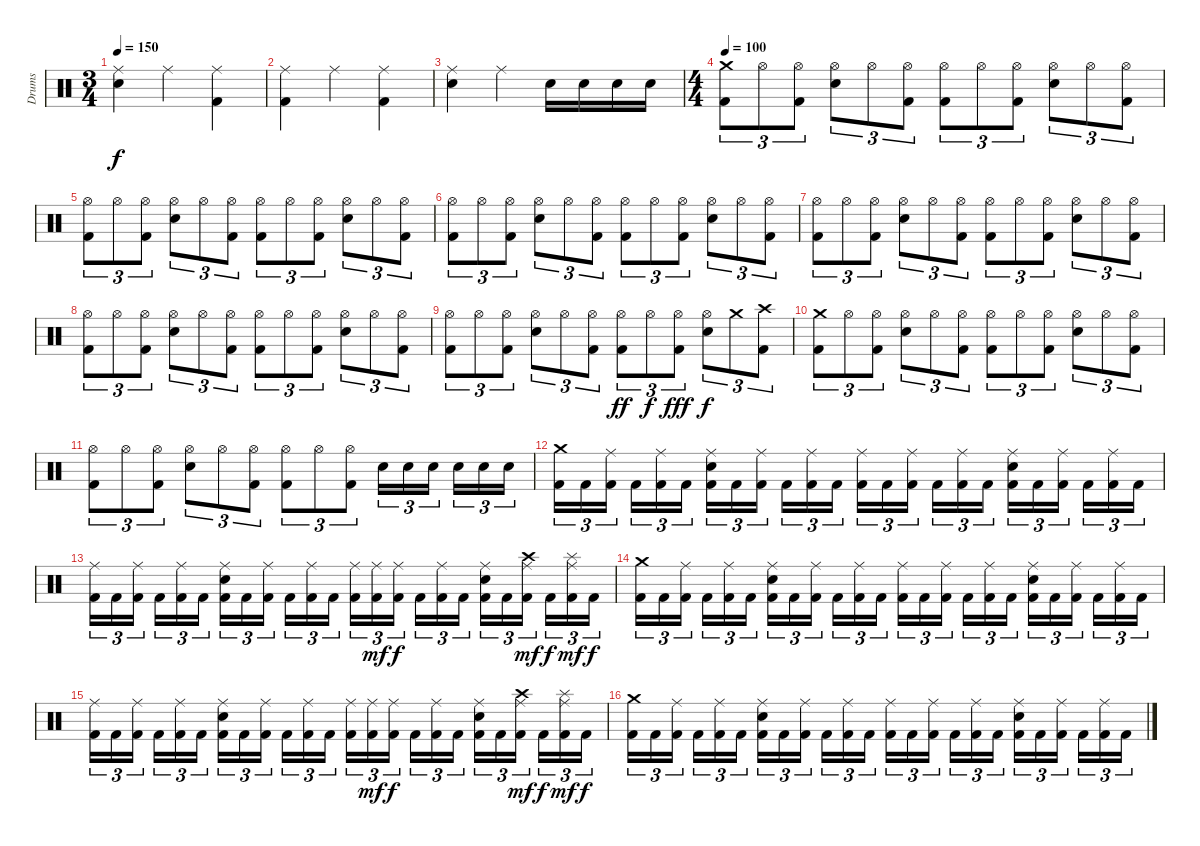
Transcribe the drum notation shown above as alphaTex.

\track ("Drums" "Drums") {instrument percussion}
\staff {score}
\articulation defaults
\ts (3 4)
\tempo 150
\clef neutral
\ks c
("Ride (middle)" "Electric Snare (hit)").4{dy f} "Ride (middle)".4 ("Ride (middle)" "Kick (hit) 2").4 |
("Ride (middle)" "Kick (hit) 2").4 "Ride (middle)".4 ("Ride (middle)" "Kick (hit) 2").4 |
("Ride (middle)" "Electric Snare (hit)").4 "Ride (middle)".4 "Electric Snare (hit)".16 "Electric Snare (hit)".16 "Electric Snare (hit)".16 "Electric Snare (hit)".16 |
\ts (4 4)
\tempo 100
("Crash medium (hit)" "Kick (hit) 2").8{tu (3 2)} "Hi-Hat (open)".8{tu (3 2)} ("Hi-Hat (open)" "Kick (hit) 2").8{tu (3 2)} ("Hi-Hat (open)" "Electric Snare (hit)").8{tu (3 2)} "Hi-Hat (open)".8{tu (3 2)} ("Hi-Hat (open)" "Kick (hit) 2").8{tu (3 2)} ("Hi-Hat (open)" "Kick (hit) 2").8{tu (3 2)} "Hi-Hat (open)".8{tu (3 2)} ("Hi-Hat (open)" "Kick (hit) 2").8{tu (3 2)} ("Hi-Hat (open)" "Electric Snare (hit)").8{tu (3 2)} "Hi-Hat (open)".8{tu (3 2)} ("Hi-Hat (open)" "Kick (hit) 2").8{tu (3 2)} |
("Hi-Hat (open)" "Kick (hit) 2").8{tu (3 2)} "Hi-Hat (open)".8{tu (3 2)} ("Hi-Hat (open)" "Kick (hit) 2").8{tu (3 2)} ("Hi-Hat (open)" "Electric Snare (hit)").8{tu (3 2)} "Hi-Hat (open)".8{tu (3 2)} ("Hi-Hat (open)" "Kick (hit) 2").8{tu (3 2)} ("Hi-Hat (open)" "Kick (hit) 2").8{tu (3 2)} "Hi-Hat (open)".8{tu (3 2)} ("Hi-Hat (open)" "Kick (hit) 2").8{tu (3 2)} ("Hi-Hat (open)" "Electric Snare (hit)").8{tu (3 2)} "Hi-Hat (open)".8{tu (3 2)} ("Hi-Hat (open)" "Kick (hit) 2").8{tu (3 2)} |
("Hi-Hat (open)" "Kick (hit) 2").8{tu (3 2)} "Hi-Hat (open)".8{tu (3 2)} ("Hi-Hat (open)" "Kick (hit) 2").8{tu (3 2)} ("Hi-Hat (open)" "Electric Snare (hit)").8{tu (3 2)} "Hi-Hat (open)".8{tu (3 2)} ("Hi-Hat (open)" "Kick (hit) 2").8{tu (3 2)} ("Hi-Hat (open)" "Kick (hit) 2").8{tu (3 2)} "Hi-Hat (open)".8{tu (3 2)} ("Hi-Hat (open)" "Kick (hit) 2").8{tu (3 2)} ("Hi-Hat (open)" "Electric Snare (hit)").8{tu (3 2)} "Hi-Hat (open)".8{tu (3 2)} ("Hi-Hat (open)" "Kick (hit) 2").8{tu (3 2)} |
("Hi-Hat (open)" "Kick (hit) 2").8{tu (3 2)} "Hi-Hat (open)".8{tu (3 2)} ("Hi-Hat (open)" "Kick (hit) 2").8{tu (3 2)} ("Hi-Hat (open)" "Electric Snare (hit)").8{tu (3 2)} "Hi-Hat (open)".8{tu (3 2)} ("Hi-Hat (open)" "Kick (hit) 2").8{tu (3 2)} ("Hi-Hat (open)" "Kick (hit) 2").8{tu (3 2)} "Hi-Hat (open)".8{tu (3 2)} ("Hi-Hat (open)" "Kick (hit) 2").8{tu (3 2)} ("Hi-Hat (open)" "Electric Snare (hit)").8{tu (3 2)} "Hi-Hat (open)".8{tu (3 2)} ("Hi-Hat (open)" "Kick (hit) 2").8{tu (3 2)} |
("Hi-Hat (open)" "Kick (hit) 2").8{tu (3 2)} "Hi-Hat (open)".8{tu (3 2)} ("Hi-Hat (open)" "Kick (hit) 2").8{tu (3 2)} ("Hi-Hat (open)" "Electric Snare (hit)").8{tu (3 2)} "Hi-Hat (open)".8{tu (3 2)} ("Hi-Hat (open)" "Kick (hit) 2").8{tu (3 2)} ("Hi-Hat (open)" "Kick (hit) 2").8{tu (3 2)} "Hi-Hat (open)".8{tu (3 2)} ("Hi-Hat (open)" "Kick (hit) 2").8{tu (3 2)} ("Hi-Hat (open)" "Electric Snare (hit)").8{tu (3 2)} "Hi-Hat (open)".8{tu (3 2)} ("Hi-Hat (open)" "Kick (hit) 2").8{tu (3 2)} |
("Hi-Hat (open)" "Kick (hit) 2").8{tu (3 2)} "Hi-Hat (open)".8{tu (3 2)} ("Hi-Hat (open)" "Kick (hit) 2").8{tu (3 2)} ("Hi-Hat (open)" "Electric Snare (hit)").8{tu (3 2)} "Hi-Hat (open)".8{tu (3 2)} ("Hi-Hat (open)" "Kick (hit) 2").8{tu (3 2)} ("Hi-Hat (open)" "Kick (hit) 2").8{tu (3 2) dy ff} "Hi-Hat (open)".8{tu (3 2) dy f} ("Hi-Hat (open)" "Kick (hit) 2").8{tu (3 2) dy fff} ("Hi-Hat (open)" "Electric Snare (hit)").8{tu (3 2) dy f} "Crash medium (hit)".8{tu (3 2)} ("Crash high (hit)" "Kick (hit) 2").8{tu (3 2)} |
("Crash medium (hit)" "Kick (hit) 2").8{tu (3 2)} "Hi-Hat (open)".8{tu (3 2)} ("Hi-Hat (open)" "Kick (hit) 2").8{tu (3 2)} ("Hi-Hat (open)" "Electric Snare (hit)").8{tu (3 2)} "Hi-Hat (open)".8{tu (3 2)} ("Hi-Hat (open)" "Kick (hit) 2").8{tu (3 2)} ("Hi-Hat (open)" "Kick (hit) 2").8{tu (3 2)} "Hi-Hat (open)".8{tu (3 2)} ("Hi-Hat (open)" "Kick (hit) 2").8{tu (3 2)} ("Hi-Hat (open)" "Electric Snare (hit)").8{tu (3 2)} "Hi-Hat (open)".8{tu (3 2)} ("Hi-Hat (open)" "Kick (hit) 2").8{tu (3 2)} |
("Hi-Hat (open)" "Kick (hit) 2").8{tu (3 2)} "Hi-Hat (open)".8{tu (3 2)} ("Hi-Hat (open)" "Kick (hit) 2").8{tu (3 2)} ("Hi-Hat (open)" "Electric Snare (hit)").8{tu (3 2)} "Hi-Hat (open)".8{tu (3 2)} ("Hi-Hat (open)" "Kick (hit) 2").8{tu (3 2)} ("Hi-Hat (open)" "Kick (hit) 2").8{tu (3 2)} "Hi-Hat (open)".8{tu (3 2)} ("Hi-Hat (open)" "Kick (hit) 2").8{tu (3 2)} "Electric Snare (hit)".16{tu (3 2)} "Electric Snare (hit)".16{tu (3 2)} "Electric Snare (hit)".16{tu (3 2) beam splitsecondary} "Electric Snare (hit)".16{tu (3 2)} "Electric Snare (hit)".16{tu (3 2)} "Electric Snare (hit)".16{tu (3 2)} |
("Crash medium (hit)" "Kick (hit) 2").16{tu (3 2)} "Kick (hit) 2".16{tu (3 2)} ("Ride (middle)" "Kick (hit) 2").16{tu (3 2) beam splitsecondary} "Kick (hit) 2".16{tu (3 2)} ("Ride (middle)" "Kick (hit) 2").16{tu (3 2)} "Kick (hit) 2".16{tu (3 2)} ("Ride (middle)" "Electric Snare (hit)" "Kick (hit) 2").16{tu (3 2)} "Kick (hit) 2".16{tu (3 2)} ("Ride (middle)" "Kick (hit) 2").16{tu (3 2) beam splitsecondary} "Kick (hit) 2".16{tu (3 2)} ("Ride (middle)" "Kick (hit) 2").16{tu (3 2)} "Kick (hit) 2".16{tu (3 2)} ("Ride (middle)" "Kick (hit) 2").16{tu (3 2)} "Kick (hit) 2".16{tu (3 2)} ("Ride (middle)" "Kick (hit) 2").16{tu (3 2) beam splitsecondary} "Kick (hit) 2".16{tu (3 2)} ("Ride (middle)" "Kick (hit) 2").16{tu (3 2)} "Kick (hit) 2".16{tu (3 2)} ("Ride (middle)" "Electric Snare (hit)" "Kick (hit) 2").16{tu (3 2)} "Kick (hit) 2".16{tu (3 2)} ("Ride (middle)" "Kick (hit) 2").16{tu (3 2) beam splitsecondary} "Kick (hit) 2".16{tu (3 2)} ("Ride (middle)" "Kick (hit) 2").16{tu (3 2)} "Kick (hit) 2".16{tu (3 2)} |
("Ride (middle)" "Kick (hit) 2").16{tu (3 2)} "Kick (hit) 2".16{tu (3 2)} ("Ride (middle)" "Kick (hit) 2").16{tu (3 2) beam splitsecondary} "Kick (hit) 2".16{tu (3 2)} ("Ride (middle)" "Kick (hit) 2").16{tu (3 2)} "Kick (hit) 2".16{tu (3 2)} ("Ride (middle)" "Electric Snare (hit)" "Kick (hit) 2").16{tu (3 2)} "Kick (hit) 2".16{tu (3 2)} ("Ride (middle)" "Kick (hit) 2").16{tu (3 2) beam splitsecondary} "Kick (hit) 2".16{tu (3 2)} ("Ride (middle)" "Kick (hit) 2").16{tu (3 2)} "Kick (hit) 2".16{tu (3 2)} ("Ride (middle)" "Kick (hit) 2").16{tu (3 2)} ("Ride (middle)" "Kick (hit) 2").16{tu (3 2) dy mf} ("Ride (middle)" "Kick (hit) 2").16{tu (3 2) dy f beam splitsecondary} "Kick (hit) 2".16{tu (3 2)} ("Ride (middle)" "Kick (hit) 2").16{tu (3 2)} "Kick (hit) 2".16{tu (3 2)} ("Ride (middle)" "Electric Snare (hit)" "Kick (hit) 2").16{tu (3 2)} "Kick (hit) 2".16{tu (3 2)} ("Crash high (hit)" "Ride (middle)" "Kick (hit) 2").16{tu (3 2) dy mf beam splitsecondary} "Kick (hit) 2".16{tu (3 2) dy f} ("Splash (hit)" "Ride (middle)" "Kick (hit) 2").16{tu (3 2) dy mf} "Kick (hit) 2".16{tu (3 2) dy f} |
("Crash medium (hit)" "Kick (hit) 2").16{tu (3 2)} "Kick (hit) 2".16{tu (3 2)} ("Ride (middle)" "Kick (hit) 2").16{tu (3 2) beam splitsecondary} "Kick (hit) 2".16{tu (3 2)} ("Ride (middle)" "Kick (hit) 2").16{tu (3 2)} "Kick (hit) 2".16{tu (3 2)} ("Ride (middle)" "Electric Snare (hit)" "Kick (hit) 2").16{tu (3 2)} "Kick (hit) 2".16{tu (3 2)} ("Ride (middle)" "Kick (hit) 2").16{tu (3 2) beam splitsecondary} "Kick (hit) 2".16{tu (3 2)} ("Ride (middle)" "Kick (hit) 2").16{tu (3 2)} "Kick (hit) 2".16{tu (3 2)} ("Ride (middle)" "Kick (hit) 2").16{tu (3 2)} "Kick (hit) 2".16{tu (3 2)} ("Ride (middle)" "Kick (hit) 2").16{tu (3 2) beam splitsecondary} "Kick (hit) 2".16{tu (3 2)} ("Ride (middle)" "Kick (hit) 2").16{tu (3 2)} "Kick (hit) 2".16{tu (3 2)} ("Ride (middle)" "Electric Snare (hit)" "Kick (hit) 2").16{tu (3 2)} "Kick (hit) 2".16{tu (3 2)} ("Ride (middle)" "Kick (hit) 2").16{tu (3 2) beam splitsecondary} "Kick (hit) 2".16{tu (3 2)} ("Ride (middle)" "Kick (hit) 2").16{tu (3 2)} "Kick (hit) 2".16{tu (3 2)} |
("Ride (middle)" "Kick (hit) 2").16{tu (3 2)} "Kick (hit) 2".16{tu (3 2)} ("Ride (middle)" "Kick (hit) 2").16{tu (3 2) beam splitsecondary} "Kick (hit) 2".16{tu (3 2)} ("Ride (middle)" "Kick (hit) 2").16{tu (3 2)} "Kick (hit) 2".16{tu (3 2)} ("Ride (middle)" "Electric Snare (hit)" "Kick (hit) 2").16{tu (3 2)} "Kick (hit) 2".16{tu (3 2)} ("Ride (middle)" "Kick (hit) 2").16{tu (3 2) beam splitsecondary} "Kick (hit) 2".16{tu (3 2)} ("Ride (middle)" "Kick (hit) 2").16{tu (3 2)} "Kick (hit) 2".16{tu (3 2)} ("Ride (middle)" "Kick (hit) 2").16{tu (3 2)} ("Ride (middle)" "Kick (hit) 2").16{tu (3 2) dy mf} ("Ride (middle)" "Kick (hit) 2").16{tu (3 2) dy f beam splitsecondary} "Kick (hit) 2".16{tu (3 2)} ("Ride (middle)" "Kick (hit) 2").16{tu (3 2)} "Kick (hit) 2".16{tu (3 2)} ("Ride (middle)" "Electric Snare (hit)" "Kick (hit) 2").16{tu (3 2)} "Kick (hit) 2".16{tu (3 2)} ("Crash high (hit)" "Ride (middle)" "Kick (hit) 2").16{tu (3 2) dy mf beam splitsecondary} "Kick (hit) 2".16{tu (3 2) dy f} ("Splash (hit)" "Ride (middle)" "Kick (hit) 2").16{tu (3 2) dy mf} "Kick (hit) 2".16{tu (3 2) dy f} |
("Crash medium (hit)" "Kick (hit) 2").16{tu (3 2)} "Kick (hit) 2".16{tu (3 2)} ("Ride (middle)" "Kick (hit) 2").16{tu (3 2) beam splitsecondary} "Kick (hit) 2".16{tu (3 2)} ("Ride (middle)" "Kick (hit) 2").16{tu (3 2)} "Kick (hit) 2".16{tu (3 2)} ("Ride (middle)" "Electric Snare (hit)" "Kick (hit) 2").16{tu (3 2)} "Kick (hit) 2".16{tu (3 2)} ("Ride (middle)" "Kick (hit) 2").16{tu (3 2) beam splitsecondary} "Kick (hit) 2".16{tu (3 2)} ("Ride (middle)" "Kick (hit) 2").16{tu (3 2)} "Kick (hit) 2".16{tu (3 2)} ("Ride (middle)" "Kick (hit) 2").16{tu (3 2)} "Kick (hit) 2".16{tu (3 2)} ("Ride (middle)" "Kick (hit) 2").16{tu (3 2) beam splitsecondary} "Kick (hit) 2".16{tu (3 2)} ("Ride (middle)" "Kick (hit) 2").16{tu (3 2)} "Kick (hit) 2".16{tu (3 2)} ("Ride (middle)" "Electric Snare (hit)" "Kick (hit) 2").16{tu (3 2)} "Kick (hit) 2".16{tu (3 2)} ("Ride (middle)" "Kick (hit) 2").16{tu (3 2) beam splitsecondary} "Kick (hit) 2".16{tu (3 2)} ("Ride (middle)" "Kick (hit) 2").16{tu (3 2)} "Kick (hit) 2".16{tu (3 2)}
